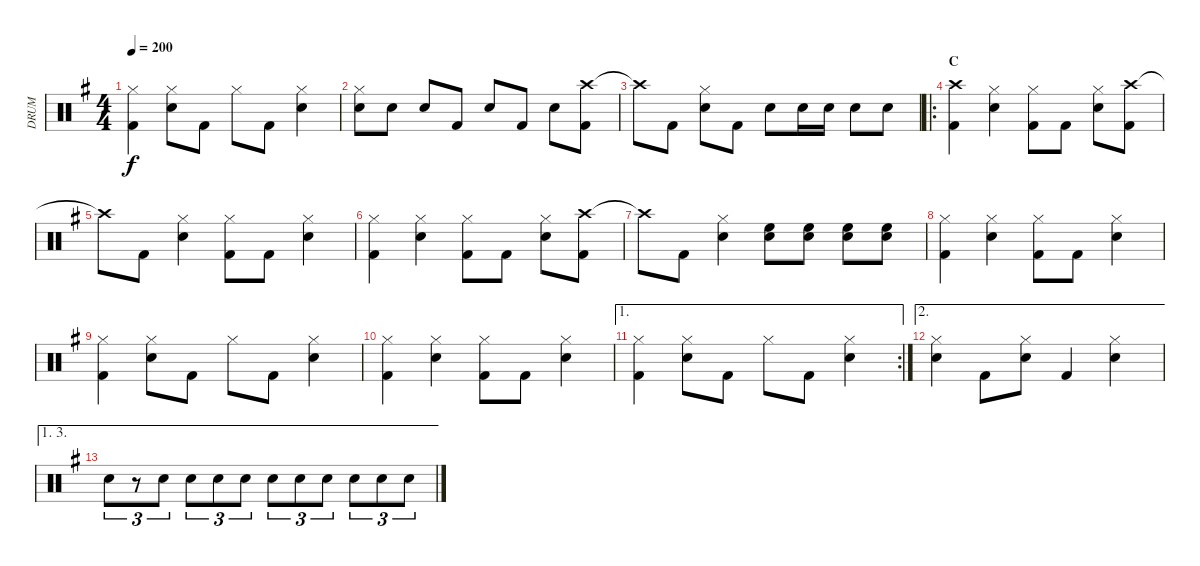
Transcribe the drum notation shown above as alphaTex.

\track ("DRUM" "DRUM") {instrument percussion}
\staff {score}
\articulation defaults
\ts (4 4)
\tempo 200
\clef neutral
\ks eminor
("Hi-Hat (closed)" "Kick (hit) 2").4{dy f} ("Hi-Hat (closed)" "Snare (hit) 2").8 "Kick (hit) 2".8 "Hi-Hat (closed)".8 "Kick (hit) 2".8 ("Hi-Hat (closed)" "Snare (hit) 2").4 |
("Hi-Hat (closed)" "Snare (hit) 2").8 "Snare (hit) 2".8 "Snare (hit) 2".8 "Kick (hit) 2".8 "Snare (hit) 2".8 "Kick (hit) 2".8 "Snare (hit) 2".8 ("Crash high (hit)" "Kick (hit) 2").8 |
"Crash high (hit)"{t}.8 "Kick (hit) 2".8 ("Hi-Hat (closed)" "Snare (hit) 2").8 "Kick (hit) 2".8 "Snare (hit) 2".8 "Snare (hit) 2".16 "Snare (hit) 2".16 "Snare (hit) 2".8 "Snare (hit) 2".8 |
\ro
\section ("" "C")
("Crash high (hit)" "Kick (hit) 2").4 ("Hi-Hat (closed)" "Snare (hit) 2").4 ("Hi-Hat (closed)" "Kick (hit) 2").8 "Kick (hit) 2".8 ("Hi-Hat (closed)" "Snare (hit) 2").8 ("Crash high (hit)" "Kick (hit) 2").8 |
"Crash high (hit)"{t}.8 "Kick (hit) 2".8 ("Hi-Hat (closed)" "Snare (hit) 2").4 ("Hi-Hat (closed)" "Kick (hit) 2").8 "Kick (hit) 2".8 ("Hi-Hat (closed)" "Snare (hit) 2").4 |
("Hi-Hat (closed)" "Kick (hit) 2").4 ("Hi-Hat (closed)" "Snare (hit) 2").4 ("Hi-Hat (closed)" "Kick (hit) 2").8 "Kick (hit) 2".8 ("Hi-Hat (closed)" "Snare (hit) 2").8 ("Crash high (hit)" "Kick (hit) 2").8 |
"Crash high (hit)"{t}.8 "Kick (hit) 2".8 ("Hi-Hat (closed)" "Snare (hit) 2").4 ("Snare (hit) 2" "High Floor Tom (hit)").8 ("Snare (hit) 2" "High Floor Tom (hit)").8 ("Snare (hit) 2" "High Floor Tom (hit)").8 ("Snare (hit) 2" "High Floor Tom (hit)").8 |
("Hi-Hat (closed)" "Kick (hit) 2").4 ("Hi-Hat (closed)" "Snare (hit) 2").4 ("Hi-Hat (closed)" "Kick (hit) 2").8 "Kick (hit) 2".8 ("Hi-Hat (closed)" "Snare (hit) 2").4 |
("Hi-Hat (closed)" "Kick (hit) 2").4 ("Hi-Hat (closed)" "Snare (hit) 2").8 "Kick (hit) 2".8 "Hi-Hat (closed)".8 "Kick (hit) 2".8 ("Hi-Hat (closed)" "Snare (hit) 2").4 |
("Hi-Hat (closed)" "Kick (hit) 2").4 ("Hi-Hat (closed)" "Snare (hit) 2").4 ("Hi-Hat (closed)" "Kick (hit) 2").8 "Kick (hit) 2".8 ("Hi-Hat (closed)" "Snare (hit) 2").4 |
\ae 1
\rc 2
("Hi-Hat (closed)" "Kick (hit) 2").4 ("Hi-Hat (closed)" "Snare (hit) 2").8 "Kick (hit) 2".8 "Hi-Hat (closed)".8 "Kick (hit) 2".8 ("Hi-Hat (closed)" "Snare (hit) 2").4 |
\ae 2
("Hi-Hat (closed)" "Snare (hit) 2").4 "Kick (hit) 2".8 ("Hi-Hat (closed)" "Snare (hit) 2").8 "Kick (hit) 2".4 ("Hi-Hat (closed)" "Snare (hit) 2").4 |
\ae (1 3)
"Snare (hit) 2".8{tu (3 2)} r.8{tu (3 2)} "Snare (hit) 2".8{tu (3 2)} "Snare (hit) 2".8{tu (3 2)} "Snare (hit) 2".8{tu (3 2)} "Snare (hit) 2".8{tu (3 2)} "Snare (hit) 2".8{tu (3 2)} "Snare (hit) 2".8{tu (3 2)} "Snare (hit) 2".8{tu (3 2)} "Snare (hit) 2".8{tu (3 2)} "Snare (hit) 2".8{tu (3 2)} "Snare (hit) 2".8{tu (3 2)}
